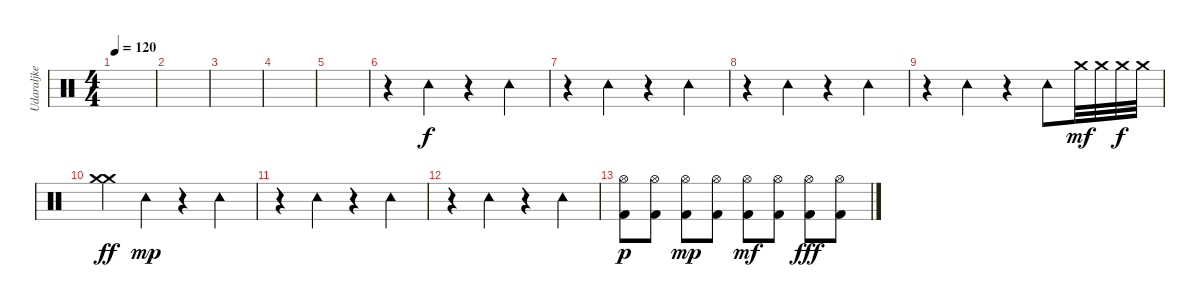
\track ("Udaraljke" "Udaraljke") {instrument percussion}
\staff {score}
\articulation defaults
\ts (4 4)
\tempo 120
\clef neutral
\ks c
|
|
|
|
|
r.4 "Tambourine (hit)".4 r.4 "Tambourine (hit)".4 |
r.4 "Tambourine (hit)".4 r.4 "Tambourine (hit)".4 |
r.4 "Tambourine (hit)".4 r.4 "Tambourine (hit)".4 |
r.4 "Tambourine (hit)".4 r.4 "Tambourine (hit)".8 "Crash medium (hit)".32{dy mf} "Crash medium (hit)".32 "Crash medium (hit)".32{dy f} "Crash medium (hit)".32 |
("Crash medium (hit)" "Crash medium (hit)").4{dy ff} "Tambourine (hit)".4{dy mp} r.4 "Tambourine (hit)".4 |
r.4 "Tambourine (hit)".4 r.4 "Tambourine (hit)".4 |
r.4 "Tambourine (hit)".4 r.4 "Tambourine (hit)".4 |
("Hi-Hat (open)" "Kick (hit) 2").8{dy p} ("Hi-Hat (open)" "Kick (hit) 2").8 ("Hi-Hat (open)" "Kick (hit) 2").8{dy mp} ("Hi-Hat (open)" "Kick (hit) 2").8 ("Hi-Hat (open)" "Kick (hit) 2").8{dy mf} ("Hi-Hat (open)" "Kick (hit) 2").8 ("Hi-Hat (open)" "Kick (hit) 2").8{dy fff} ("Hi-Hat (open)" "Kick (hit) 2").8
